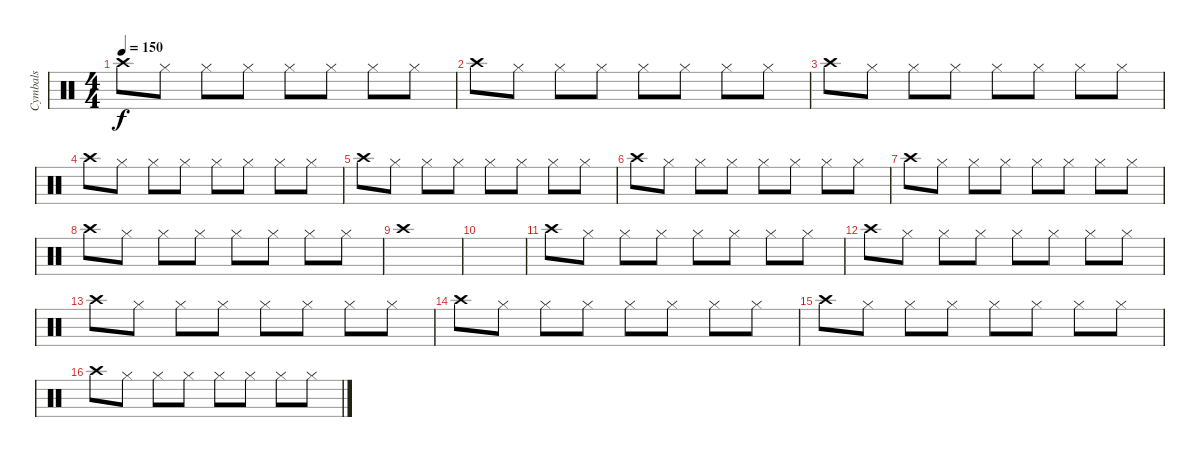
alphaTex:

\track ("Cymbals" "Cymbals") {instrument percussion}
\staff {score}
\articulation defaults
\ts (4 4)
\tempo 150
\clef neutral
\ks c "Crash high (hit)".8{dy f} "Hi-Hat (closed)".8 "Hi-Hat (closed)".8 "Hi-Hat (closed)".8 "Hi-Hat (closed)".8 "Hi-Hat (closed)".8 "Hi-Hat (closed)".8 "Hi-Hat (closed)".8
|
"Crash high (hit)".8 "Hi-Hat (closed)".8 "Hi-Hat (closed)".8 "Hi-Hat (closed)".8 "Hi-Hat (closed)".8 "Hi-Hat (closed)".8 "Hi-Hat (closed)".8 "Hi-Hat (closed)".8 |
"Crash high (hit)".8 "Hi-Hat (closed)".8 "Hi-Hat (closed)".8 "Hi-Hat (closed)".8 "Hi-Hat (closed)".8 "Hi-Hat (closed)".8 "Hi-Hat (closed)".8 "Hi-Hat (closed)".8 |
"Crash high (hit)".8 "Hi-Hat (closed)".8 "Hi-Hat (closed)".8 "Hi-Hat (closed)".8 "Hi-Hat (closed)".8 "Hi-Hat (closed)".8 "Hi-Hat (closed)".8 "Hi-Hat (closed)".8 |
"Crash high (hit)".8 "Hi-Hat (closed)".8 "Hi-Hat (closed)".8 "Hi-Hat (closed)".8 "Hi-Hat (closed)".8 "Hi-Hat (closed)".8 "Hi-Hat (closed)".8 "Hi-Hat (closed)".8 |
"Crash high (hit)".8 "Hi-Hat (closed)".8 "Hi-Hat (closed)".8 "Hi-Hat (closed)".8 "Hi-Hat (closed)".8 "Hi-Hat (closed)".8 "Hi-Hat (closed)".8 "Hi-Hat (closed)".8 |
"Crash high (hit)".8 "Hi-Hat (closed)".8 "Hi-Hat (closed)".8 "Hi-Hat (closed)".8 "Hi-Hat (closed)".8 "Hi-Hat (closed)".8 "Hi-Hat (closed)".8 "Hi-Hat (closed)".8 |
"Crash high (hit)".8 "Hi-Hat (closed)".8 "Hi-Hat (closed)".8 "Hi-Hat (closed)".8 "Hi-Hat (closed)".8 "Hi-Hat (closed)".8 "Hi-Hat (closed)".8 "Hi-Hat (closed)".8 |
"Crash high (hit)".1 |
|
"Crash high (hit)".8 "Hi-Hat (closed)".8 "Hi-Hat (closed)".8 "Hi-Hat (closed)".8 "Hi-Hat (closed)".8 "Hi-Hat (closed)".8 "Hi-Hat (closed)".8 "Hi-Hat (closed)".8 |
"Crash high (hit)".8 "Hi-Hat (closed)".8 "Hi-Hat (closed)".8 "Hi-Hat (closed)".8 "Hi-Hat (closed)".8 "Hi-Hat (closed)".8 "Hi-Hat (closed)".8 "Hi-Hat (closed)".8 |
"Crash high (hit)".8 "Hi-Hat (closed)".8 "Hi-Hat (closed)".8 "Hi-Hat (closed)".8 "Hi-Hat (closed)".8 "Hi-Hat (closed)".8 "Hi-Hat (closed)".8 "Hi-Hat (closed)".8 |
"Crash high (hit)".8 "Hi-Hat (closed)".8 "Hi-Hat (closed)".8 "Hi-Hat (closed)".8 "Hi-Hat (closed)".8 "Hi-Hat (closed)".8 "Hi-Hat (closed)".8 "Hi-Hat (closed)".8 |
"Crash high (hit)".8 "Hi-Hat (closed)".8 "Hi-Hat (closed)".8 "Hi-Hat (closed)".8 "Hi-Hat (closed)".8 "Hi-Hat (closed)".8 "Hi-Hat (closed)".8 "Hi-Hat (closed)".8 |
"Crash high (hit)".8 "Hi-Hat (closed)".8 "Hi-Hat (closed)".8 "Hi-Hat (closed)".8 "Hi-Hat (closed)".8 "Hi-Hat (closed)".8 "Hi-Hat (closed)".8 "Hi-Hat (closed)".8
